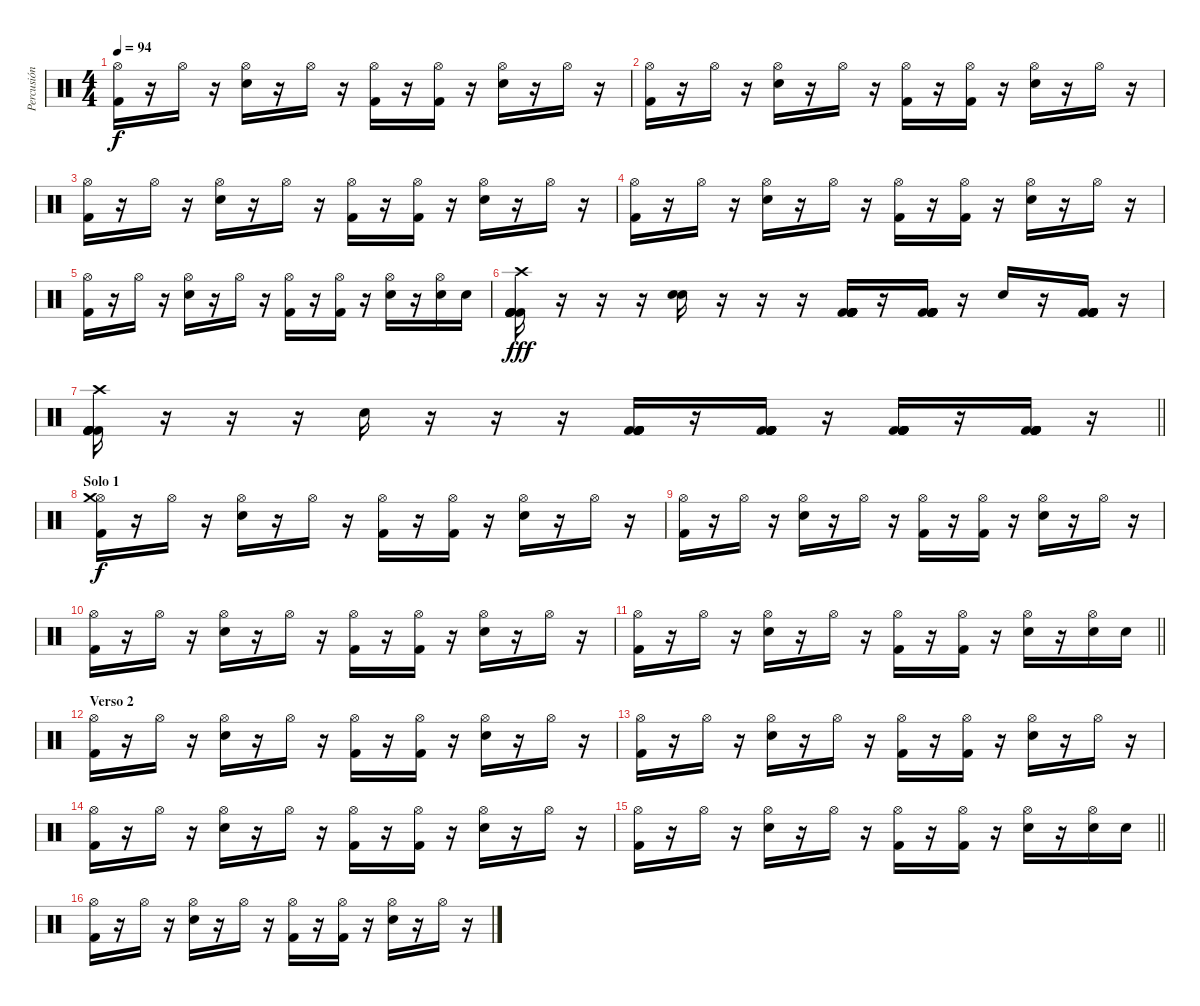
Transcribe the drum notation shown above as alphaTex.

\track ("Percusión" "Percusión") {instrument percussion}
\staff {score}
\articulation defaults
\ts (4 4)
\tempo 94
\clef neutral
\ks c
("Hi-Hat (open)" "Kick (hit) 2").16{dy f} r.16 "Hi-Hat (open)".16 r.16 ("Hi-Hat (open)" "Electric Snare (hit)").16 r.16 "Hi-Hat (open)".16 r.16 ("Hi-Hat (open)" "Kick (hit) 2").16 r.16 ("Hi-Hat (open)" "Kick (hit) 2").16 r.16 ("Hi-Hat (open)" "Electric Snare (hit)").16 r.16 "Hi-Hat (open)".16 r.16 |
("Hi-Hat (open)" "Kick (hit) 2").16 r.16 "Hi-Hat (open)".16 r.16 ("Hi-Hat (open)" "Electric Snare (hit)").16 r.16 "Hi-Hat (open)".16 r.16 ("Hi-Hat (open)" "Kick (hit) 2").16 r.16 ("Hi-Hat (open)" "Kick (hit) 2").16 r.16 ("Hi-Hat (open)" "Electric Snare (hit)").16 r.16 "Hi-Hat (open)".16 r.16 |
("Hi-Hat (open)" "Kick (hit) 2").16 r.16 "Hi-Hat (open)".16 r.16 ("Hi-Hat (open)" "Electric Snare (hit)").16 r.16 "Hi-Hat (open)".16 r.16 ("Hi-Hat (open)" "Kick (hit) 2").16 r.16 ("Hi-Hat (open)" "Kick (hit) 2").16 r.16 ("Hi-Hat (open)" "Electric Snare (hit)").16 r.16 "Hi-Hat (open)".16 r.16 |
("Hi-Hat (open)" "Kick (hit) 2").16 r.16 "Hi-Hat (open)".16 r.16 ("Hi-Hat (open)" "Electric Snare (hit)").16 r.16 "Hi-Hat (open)".16 r.16 ("Hi-Hat (open)" "Kick (hit) 2").16 r.16 ("Hi-Hat (open)" "Kick (hit) 2").16 r.16 ("Hi-Hat (open)" "Electric Snare (hit)").16 r.16 "Hi-Hat (open)".16 r.16 |
("Hi-Hat (open)" "Kick (hit) 2").16 r.16 "Hi-Hat (open)".16 r.16 ("Hi-Hat (open)" "Electric Snare (hit)").16 r.16 "Hi-Hat (open)".16 r.16 ("Hi-Hat (open)" "Kick (hit) 2").16 r.16 ("Hi-Hat (open)" "Kick (hit) 2").16 r.16 ("Hi-Hat (open)" "Electric Snare (hit)").16 r.16 ("Hi-Hat (open)" "Electric Snare (hit)").16 "Electric Snare (hit)".16 |
("Crash high (hit)" "Kick (hit) 2" "Kick (hit) 2" "Kick (hit) 2" "Kick (hit) 2" "Kick (hit) 2").16{dy fff} r.16 r.16 r.16 ("Electric Snare (hit)" "Electric Snare (hit)").16 r.16 r.16 r.16 ("Kick (hit) 2" "Kick (hit) 2" "Kick (hit) 2" "Kick (hit) 2" "Kick (hit) 2" "Kick (hit) 2").16 r.16 ("Kick (hit) 2" "Kick (hit) 2" "Kick (hit) 2" "Kick (hit) 2" "Kick (hit) 2" "Kick (hit) 2").16 r.16 "Electric Snare (hit)".16 r.16 ("Kick (hit) 2" "Kick (hit) 2" "Kick (hit) 2" "Kick (hit) 2" "Kick (hit) 2" "Kick (hit) 2").16 r.16 |
\barLineRight lightlight
("Crash high (hit)" "Kick (hit) 2" "Kick (hit) 2" "Kick (hit) 2" "Kick (hit) 2" "Kick (hit) 2").16 r.16 r.16 r.16 "Electric Snare (hit)".16 r.16 r.16 r.16 ("Kick (hit) 2" "Kick (hit) 2" "Kick (hit) 2" "Kick (hit) 2" "Kick (hit) 2" "Kick (hit) 2").16 r.16 ("Kick (hit) 2" "Kick (hit) 2" "Kick (hit) 2" "Kick (hit) 2" "Kick (hit) 2" "Kick (hit) 2").16 r.16 ("Kick (hit) 2" "Kick (hit) 2" "Kick (hit) 2" "Kick (hit) 2" "Kick (hit) 2" "Kick (hit) 2").16 r.16 ("Kick (hit) 2" "Kick (hit) 2" "Kick (hit) 2" "Kick (hit) 2" "Kick (hit) 2" "Kick (hit) 2").16 r.16 |
\section ("" "Solo 1")
("Hi-Hat (open)" "Kick (hit) 2" "Crash medium (hit)").16{dy f} r.16 "Hi-Hat (open)".16 r.16 ("Hi-Hat (open)" "Electric Snare (hit)").16 r.16 "Hi-Hat (open)".16 r.16 ("Hi-Hat (open)" "Kick (hit) 2").16 r.16 ("Hi-Hat (open)" "Kick (hit) 2").16 r.16 ("Hi-Hat (open)" "Electric Snare (hit)").16 r.16 "Hi-Hat (open)".16 r.16 |
("Hi-Hat (open)" "Kick (hit) 2").16 r.16 "Hi-Hat (open)".16 r.16 ("Hi-Hat (open)" "Electric Snare (hit)").16 r.16 "Hi-Hat (open)".16 r.16 ("Hi-Hat (open)" "Kick (hit) 2").16 r.16 ("Hi-Hat (open)" "Kick (hit) 2").16 r.16 ("Hi-Hat (open)" "Electric Snare (hit)").16 r.16 "Hi-Hat (open)".16 r.16 |
("Hi-Hat (open)" "Kick (hit) 2").16 r.16 "Hi-Hat (open)".16 r.16 ("Hi-Hat (open)" "Electric Snare (hit)").16 r.16 "Hi-Hat (open)".16 r.16 ("Hi-Hat (open)" "Kick (hit) 2").16 r.16 ("Hi-Hat (open)" "Kick (hit) 2").16 r.16 ("Hi-Hat (open)" "Electric Snare (hit)").16 r.16 "Hi-Hat (open)".16 r.16 |
\barLineRight lightlight
("Hi-Hat (open)" "Kick (hit) 2").16 r.16 "Hi-Hat (open)".16 r.16 ("Hi-Hat (open)" "Electric Snare (hit)").16 r.16 "Hi-Hat (open)".16 r.16 ("Hi-Hat (open)" "Kick (hit) 2").16 r.16 ("Hi-Hat (open)" "Kick (hit) 2").16 r.16 ("Hi-Hat (open)" "Electric Snare (hit)").16 r.16 ("Hi-Hat (open)" "Electric Snare (hit)").16 "Electric Snare (hit)".16 |
\section ("" "Verso 2")
("Hi-Hat (open)" "Kick (hit) 2").16 r.16 "Hi-Hat (open)".16 r.16 ("Hi-Hat (open)" "Electric Snare (hit)").16 r.16 "Hi-Hat (open)".16 r.16 ("Hi-Hat (open)" "Kick (hit) 2").16 r.16 ("Hi-Hat (open)" "Kick (hit) 2").16 r.16 ("Hi-Hat (open)" "Electric Snare (hit)").16 r.16 "Hi-Hat (open)".16 r.16 |
("Hi-Hat (open)" "Kick (hit) 2").16 r.16 "Hi-Hat (open)".16 r.16 ("Hi-Hat (open)" "Electric Snare (hit)").16 r.16 "Hi-Hat (open)".16 r.16 ("Hi-Hat (open)" "Kick (hit) 2").16 r.16 ("Hi-Hat (open)" "Kick (hit) 2").16 r.16 ("Hi-Hat (open)" "Electric Snare (hit)").16 r.16 "Hi-Hat (open)".16 r.16 |
("Hi-Hat (open)" "Kick (hit) 2").16 r.16 "Hi-Hat (open)".16 r.16 ("Hi-Hat (open)" "Electric Snare (hit)").16 r.16 "Hi-Hat (open)".16 r.16 ("Hi-Hat (open)" "Kick (hit) 2").16 r.16 ("Hi-Hat (open)" "Kick (hit) 2").16 r.16 ("Hi-Hat (open)" "Electric Snare (hit)").16 r.16 "Hi-Hat (open)".16 r.16 |
\barLineRight lightlight
("Hi-Hat (open)" "Kick (hit) 2").16 r.16 "Hi-Hat (open)".16 r.16 ("Hi-Hat (open)" "Electric Snare (hit)").16 r.16 "Hi-Hat (open)".16 r.16 ("Hi-Hat (open)" "Kick (hit) 2").16 r.16 ("Hi-Hat (open)" "Kick (hit) 2").16 r.16 ("Hi-Hat (open)" "Electric Snare (hit)").16 r.16 ("Hi-Hat (open)" "Electric Snare (hit)").16 "Electric Snare (hit)".16 |
("Hi-Hat (open)" "Kick (hit) 2").16 r.16 "Hi-Hat (open)".16 r.16 ("Hi-Hat (open)" "Electric Snare (hit)").16 r.16 "Hi-Hat (open)".16 r.16 ("Hi-Hat (open)" "Kick (hit) 2").16 r.16 ("Hi-Hat (open)" "Kick (hit) 2").16 r.16 ("Hi-Hat (open)" "Electric Snare (hit)").16 r.16 "Hi-Hat (open)".16 r.16
